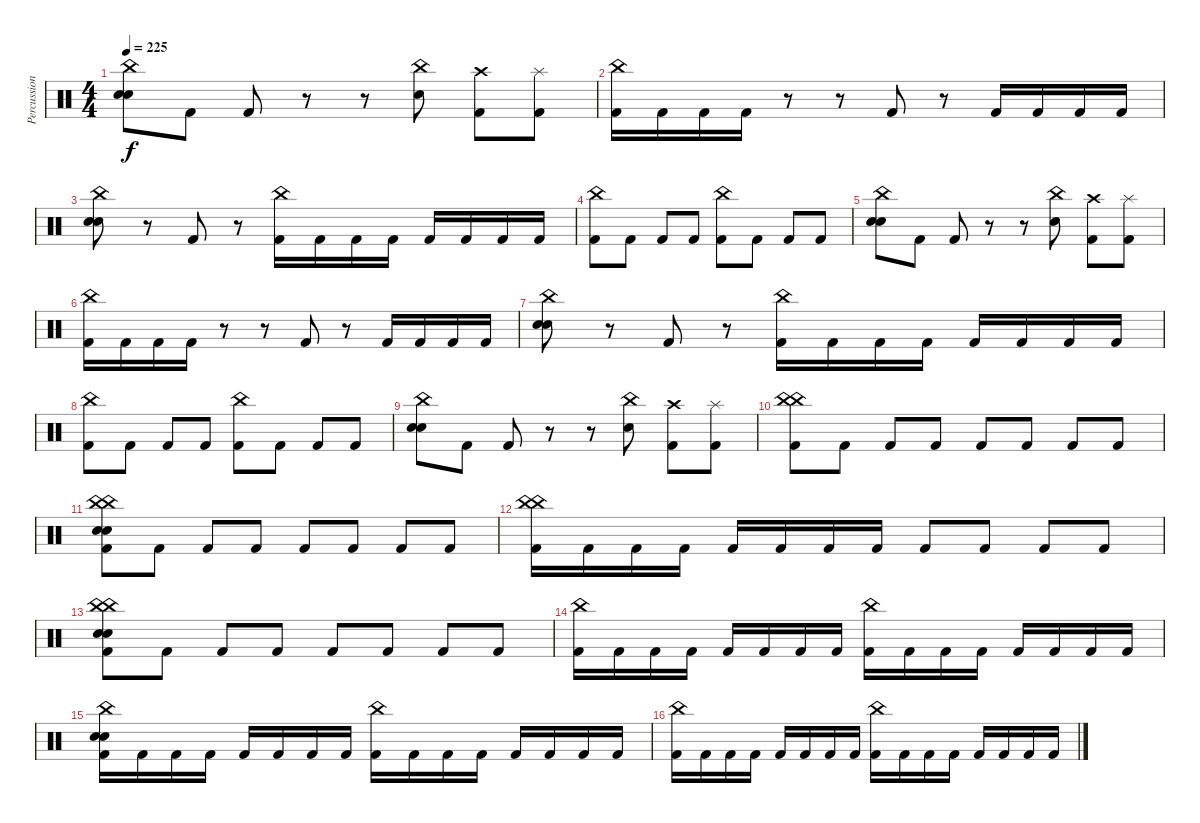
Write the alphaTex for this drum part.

\track ("Percussion" "Percussion") {instrument percussion}
\staff {score}
\articulation defaults
\ts (4 4)
\tempo 225
\clef neutral
\ks c
("China (hit)" "Electric Snare (hit)" "Electric Snare (hit)").8{dy f} "Kick (hit) 2".8 "Kick (hit) 2".8 r.8 r.8 ("China (hit)" "Electric Snare (hit)").8 ("Crash high (hit)" "Kick (hit) 2").8 ("Splash (hit)" "Kick (hit) 2").8 |
("China (hit)" "Kick (hit) 2").16 "Kick (hit) 2".16 "Kick (hit) 2".16 "Kick (hit) 2".16 r.8 r.8 "Kick (hit) 2".8 r.8 "Kick (hit) 2".16 "Kick (hit) 2".16 "Kick (hit) 2".16 "Kick (hit) 2".16 |
("China (hit)" "Electric Snare (hit)" "Electric Snare (hit)").8 r.8 "Kick (hit) 2".8 r.8 ("China (hit)" "Kick (hit) 2").16 "Kick (hit) 2".16 "Kick (hit) 2".16 "Kick (hit) 2".16 "Kick (hit) 2".16 "Kick (hit) 2".16 "Kick (hit) 2".16 "Kick (hit) 2".16 |
("China (hit)" "Kick (hit) 2").8 "Kick (hit) 2".8 "Kick (hit) 2".8 "Kick (hit) 2".8 ("China (hit)" "Kick (hit) 2").8 "Kick (hit) 2".8 "Kick (hit) 2".8 "Kick (hit) 2".8 |
("China (hit)" "Electric Snare (hit)" "Electric Snare (hit)").8 "Kick (hit) 2".8 "Kick (hit) 2".8 r.8 r.8 ("China (hit)" "Electric Snare (hit)").8 ("Crash high (hit)" "Kick (hit) 2").8 ("Splash (hit)" "Kick (hit) 2").8 |
("China (hit)" "Kick (hit) 2").16 "Kick (hit) 2".16 "Kick (hit) 2".16 "Kick (hit) 2".16 r.8 r.8 "Kick (hit) 2".8 r.8 "Kick (hit) 2".16 "Kick (hit) 2".16 "Kick (hit) 2".16 "Kick (hit) 2".16 |
("China (hit)" "Electric Snare (hit)" "Electric Snare (hit)").8 r.8 "Kick (hit) 2".8 r.8 ("China (hit)" "Kick (hit) 2").16 "Kick (hit) 2".16 "Kick (hit) 2".16 "Kick (hit) 2".16 "Kick (hit) 2".16 "Kick (hit) 2".16 "Kick (hit) 2".16 "Kick (hit) 2".16 |
("China (hit)" "Kick (hit) 2").8 "Kick (hit) 2".8 "Kick (hit) 2".8 "Kick (hit) 2".8 ("China (hit)" "Kick (hit) 2").8 "Kick (hit) 2".8 "Kick (hit) 2".8 "Kick (hit) 2".8 |
("China (hit)" "Electric Snare (hit)" "Electric Snare (hit)").8 "Kick (hit) 2".8 "Kick (hit) 2".8 r.8 r.8 ("China (hit)" "Electric Snare (hit)").8 ("Crash high (hit)" "Kick (hit) 2").8 ("Splash (hit)" "Kick (hit) 2").8 |
("China (hit)" "Kick (hit) 2" "China (hit)").8 "Kick (hit) 2".8 "Kick (hit) 2".8 "Kick (hit) 2".8 "Kick (hit) 2".8 "Kick (hit) 2".8 "Kick (hit) 2".8 "Kick (hit) 2".8 |
("China (hit)" "Kick (hit) 2" "Electric Snare (hit)" "Electric Snare (hit)" "China (hit)").8 "Kick (hit) 2".8 "Kick (hit) 2".8 "Kick (hit) 2".8 "Kick (hit) 2".8 "Kick (hit) 2".8 "Kick (hit) 2".8 "Kick (hit) 2".8 |
("China (hit)" "Kick (hit) 2" "China (hit)").16 "Kick (hit) 2".16 "Kick (hit) 2".16 "Kick (hit) 2".16 "Kick (hit) 2".16 "Kick (hit) 2".16 "Kick (hit) 2".16 "Kick (hit) 2".16 "Kick (hit) 2".8 "Kick (hit) 2".8 "Kick (hit) 2".8 "Kick (hit) 2".8 |
("China (hit)" "Kick (hit) 2" "Electric Snare (hit)" "Electric Snare (hit)" "China (hit)").8 "Kick (hit) 2".8 "Kick (hit) 2".8 "Kick (hit) 2".8 "Kick (hit) 2".8 "Kick (hit) 2".8 "Kick (hit) 2".8 "Kick (hit) 2".8 |
("China (hit)" "Kick (hit) 2").16 "Kick (hit) 2".16 "Kick (hit) 2".16 "Kick (hit) 2".16 "Kick (hit) 2".16 "Kick (hit) 2".16 "Kick (hit) 2".16 "Kick (hit) 2".16 ("China (hit)" "Kick (hit) 2").16 "Kick (hit) 2".16 "Kick (hit) 2".16 "Kick (hit) 2".16 "Kick (hit) 2".16 "Kick (hit) 2".16 "Kick (hit) 2".16 "Kick (hit) 2".16 |
("China (hit)" "Kick (hit) 2" "Electric Snare (hit)" "Electric Snare (hit)").16 "Kick (hit) 2".16 "Kick (hit) 2".16 "Kick (hit) 2".16 "Kick (hit) 2".16 "Kick (hit) 2".16 "Kick (hit) 2".16 "Kick (hit) 2".16 ("China (hit)" "Kick (hit) 2").16 "Kick (hit) 2".16 "Kick (hit) 2".16 "Kick (hit) 2".16 "Kick (hit) 2".16 "Kick (hit) 2".16 "Kick (hit) 2".16 "Kick (hit) 2".16 |
("China (hit)" "Kick (hit) 2").16 "Kick (hit) 2".16 "Kick (hit) 2".16 "Kick (hit) 2".16 "Kick (hit) 2".16 "Kick (hit) 2".16 "Kick (hit) 2".16 "Kick (hit) 2".16 ("China (hit)" "Kick (hit) 2").16 "Kick (hit) 2".16 "Kick (hit) 2".16 "Kick (hit) 2".16 "Kick (hit) 2".16 "Kick (hit) 2".16 "Kick (hit) 2".16 "Kick (hit) 2".16
